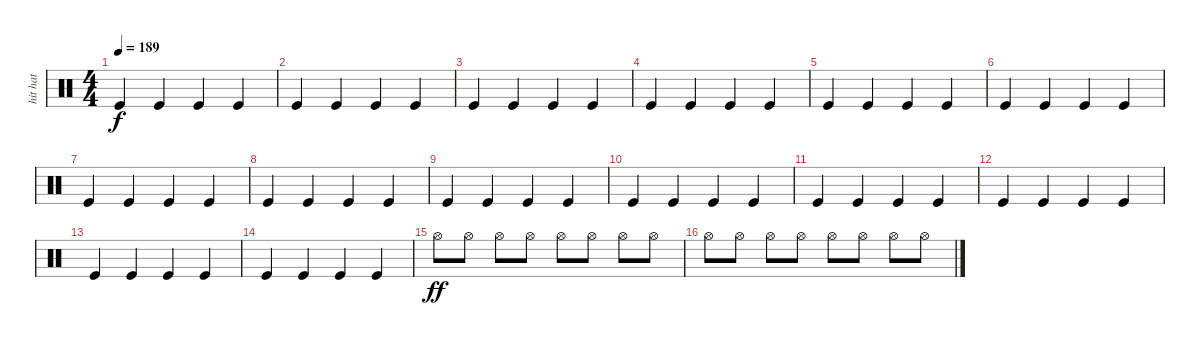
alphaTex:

\track ("hit hat" "hit hat") {instrument percussion}
\staff {score}
\articulation defaults
\ts (4 4)
\tempo 189
\clef neutral
\ks c "Kick (hit)".4{dy f} "Kick (hit)".4 "Kick (hit)".4 "Kick (hit)".4
|
"Kick (hit)".4 "Kick (hit)".4 "Kick (hit)".4 "Kick (hit)".4 |
"Kick (hit)".4 "Kick (hit)".4 "Kick (hit)".4 "Kick (hit)".4 |
"Kick (hit)".4 "Kick (hit)".4 "Kick (hit)".4 "Kick (hit)".4 |
"Kick (hit)".4 "Kick (hit)".4 "Kick (hit)".4 "Kick (hit)".4 |
"Kick (hit)".4 "Kick (hit)".4 "Kick (hit)".4 "Kick (hit)".4 |
"Kick (hit)".4 "Kick (hit)".4 "Kick (hit)".4 "Kick (hit)".4 |
"Kick (hit)".4 "Kick (hit)".4 "Kick (hit)".4 "Kick (hit)".4 |
"Kick (hit)".4 "Kick (hit)".4 "Kick (hit)".4 "Kick (hit)".4 |
"Kick (hit)".4 "Kick (hit)".4 "Kick (hit)".4 "Kick (hit)".4 |
"Kick (hit)".4 "Kick (hit)".4 "Kick (hit)".4 "Kick (hit)".4 |
"Kick (hit)".4 "Kick (hit)".4 "Kick (hit)".4 "Kick (hit)".4 |
"Kick (hit)".4 "Kick (hit)".4 "Kick (hit)".4 "Kick (hit)".4 |
"Kick (hit)".4 "Kick (hit)".4 "Kick (hit)".4 "Kick (hit)".4 |
"Hi-Hat (open)".8{dy ff} "Hi-Hat (open)".8 "Hi-Hat (open)".8 "Hi-Hat (open)".8 "Hi-Hat (open)".8 "Hi-Hat (open)".8 "Hi-Hat (open)".8 "Hi-Hat (open)".8 |
"Hi-Hat (open)".8 "Hi-Hat (open)".8 "Hi-Hat (open)".8 "Hi-Hat (open)".8 "Hi-Hat (open)".8 "Hi-Hat (open)".8 "Hi-Hat (open)".8 "Hi-Hat (open)".8
